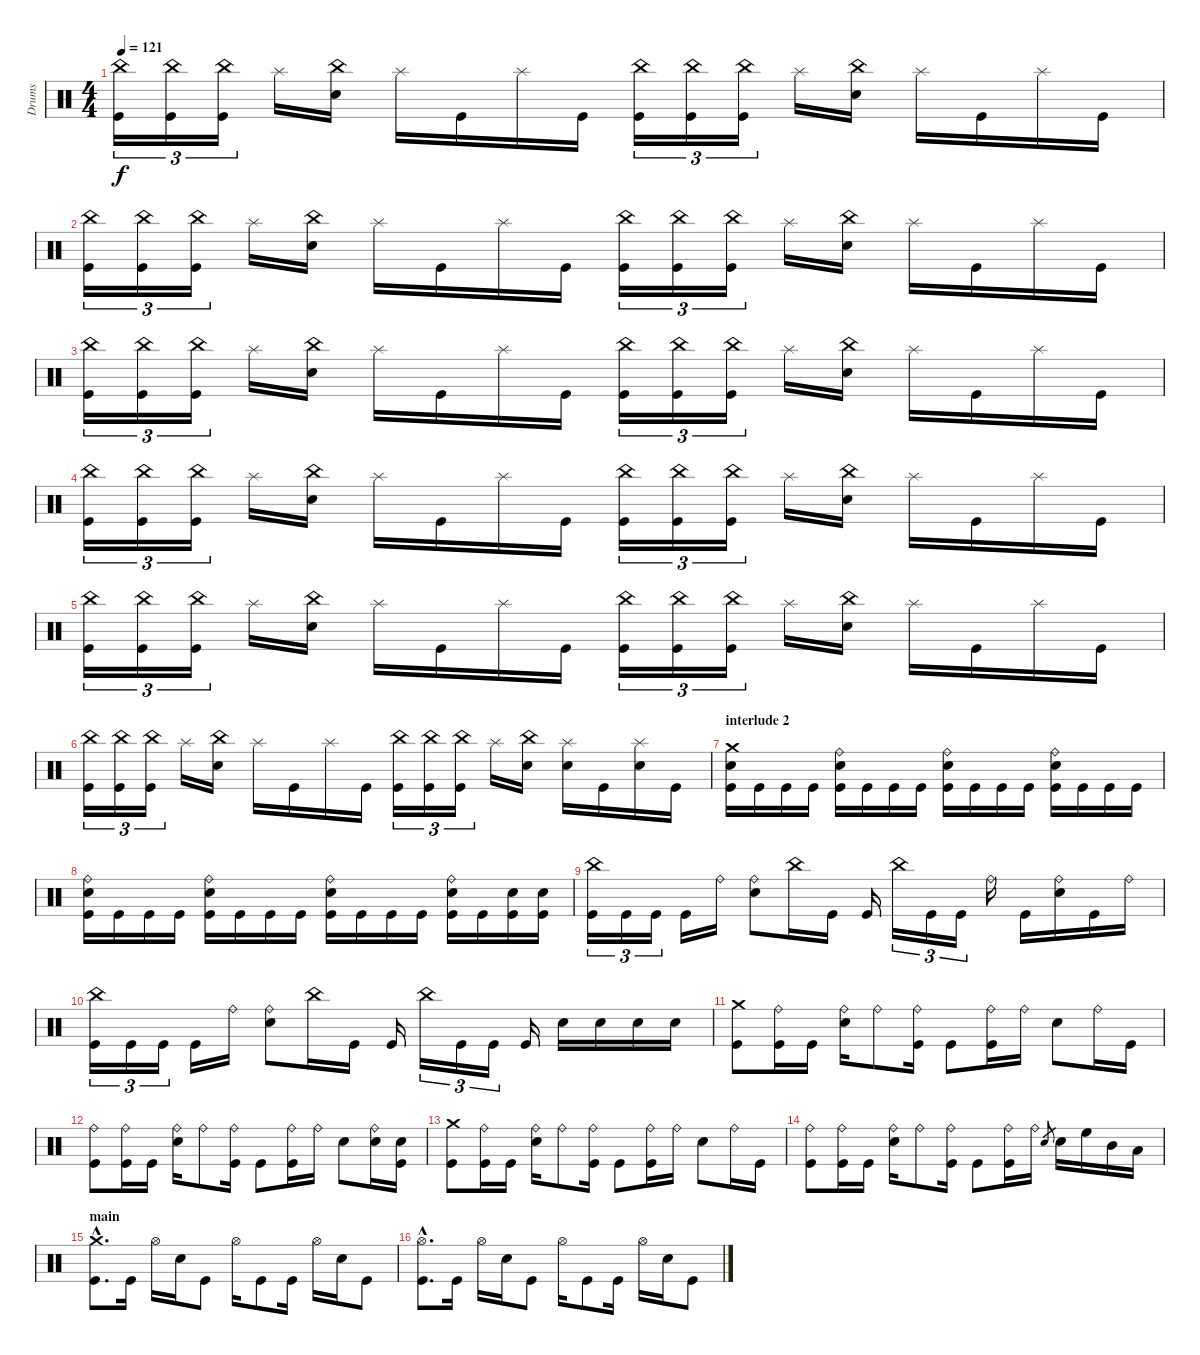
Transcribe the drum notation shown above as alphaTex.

\track ("Drums" "Drums") {instrument percussion}
\staff {score}
\articulation defaults
\ts (4 4)
\tempo 121
\clef neutral
\ks c
("Kick (hit)" "China (hit)").16{tu (3 2) dy f} ("Kick (hit)" "China (hit)").16{tu (3 2)} ("Kick (hit)" "China (hit)").16{tu (3 2)} "Splash (hit)".16 ("Electric Snare (hit)" "China (hit)").16 "Splash (hit)".16 "Kick (hit)".16 "Splash (hit)".16 "Kick (hit)".16 ("Kick (hit)" "China (hit)").16{tu (3 2)} ("Kick (hit)" "China (hit)").16{tu (3 2)} ("Kick (hit)" "China (hit)").16{tu (3 2)} "Splash (hit)".16 ("Electric Snare (hit)" "China (hit)").16 "Splash (hit)".16 "Kick (hit)".16 "Splash (hit)".16 "Kick (hit)".16 |
("Kick (hit)" "China (hit)").16{tu (3 2)} ("Kick (hit)" "China (hit)").16{tu (3 2)} ("Kick (hit)" "China (hit)").16{tu (3 2)} "Splash (hit)".16 ("Electric Snare (hit)" "China (hit)").16 "Splash (hit)".16 "Kick (hit)".16 "Splash (hit)".16 "Kick (hit)".16 ("Kick (hit)" "China (hit)").16{tu (3 2)} ("Kick (hit)" "China (hit)").16{tu (3 2)} ("Kick (hit)" "China (hit)").16{tu (3 2)} "Splash (hit)".16 ("Electric Snare (hit)" "China (hit)").16 "Splash (hit)".16 "Kick (hit)".16 "Splash (hit)".16 "Kick (hit)".16 |
("Kick (hit)" "China (hit)").16{tu (3 2)} ("Kick (hit)" "China (hit)").16{tu (3 2)} ("Kick (hit)" "China (hit)").16{tu (3 2)} "Splash (hit)".16 ("Electric Snare (hit)" "China (hit)").16 "Splash (hit)".16 "Kick (hit)".16 "Splash (hit)".16 "Kick (hit)".16 ("Kick (hit)" "China (hit)").16{tu (3 2)} ("Kick (hit)" "China (hit)").16{tu (3 2)} ("Kick (hit)" "China (hit)").16{tu (3 2)} "Splash (hit)".16 ("Electric Snare (hit)" "China (hit)").16 "Splash (hit)".16 "Kick (hit)".16 "Splash (hit)".16 "Kick (hit)".16 |
("Kick (hit)" "China (hit)").16{tu (3 2)} ("Kick (hit)" "China (hit)").16{tu (3 2)} ("Kick (hit)" "China (hit)").16{tu (3 2)} "Splash (hit)".16 ("Electric Snare (hit)" "China (hit)").16 "Splash (hit)".16 "Kick (hit)".16 "Splash (hit)".16 "Kick (hit)".16 ("Kick (hit)" "China (hit)").16{tu (3 2)} ("Kick (hit)" "China (hit)").16{tu (3 2)} ("Kick (hit)" "China (hit)").16{tu (3 2)} "Splash (hit)".16 ("Electric Snare (hit)" "China (hit)").16 "Splash (hit)".16 "Kick (hit)".16 "Splash (hit)".16 "Kick (hit)".16 |
("Kick (hit)" "China (hit)").16{tu (3 2)} ("Kick (hit)" "China (hit)").16{tu (3 2)} ("Kick (hit)" "China (hit)").16{tu (3 2)} "Splash (hit)".16 ("Electric Snare (hit)" "China (hit)").16 "Splash (hit)".16 "Kick (hit)".16 "Splash (hit)".16 "Kick (hit)".16 ("Kick (hit)" "China (hit)").16{tu (3 2)} ("Kick (hit)" "China (hit)").16{tu (3 2)} ("Kick (hit)" "China (hit)").16{tu (3 2)} "Splash (hit)".16 ("Electric Snare (hit)" "China (hit)").16 "Splash (hit)".16 "Kick (hit)".16 "Splash (hit)".16 "Kick (hit)".16 |
("Kick (hit)" "China (hit)").16{tu (3 2)} ("Kick (hit)" "China (hit)").16{tu (3 2)} ("Kick (hit)" "China (hit)").16{tu (3 2)} "Splash (hit)".16 ("Electric Snare (hit)" "China (hit)").16 "Splash (hit)".16 "Kick (hit)".16 "Splash (hit)".16 "Kick (hit)".16 ("Kick (hit)" "China (hit)").16{tu (3 2)} ("Kick (hit)" "China (hit)").16{tu (3 2)} ("Kick (hit)" "China (hit)").16{tu (3 2)} "Splash (hit)".16 ("Electric Snare (hit)" "China (hit)").16 ("Electric Snare (hit)" "Splash (hit)").16 "Kick (hit)".16 ("Electric Snare (hit)" "Splash (hit)").16 "Kick (hit)".16 |
\section ("" "interlude 2")
("Kick (hit)" "Crash medium (hit)" "Electric Snare (hit)").16 "Kick (hit)".16 "Kick (hit)".16 "Kick (hit)".16 ("Kick (hit)" "Electric Snare (hit)" "Ride (bell)").16 "Kick (hit)".16 "Kick (hit)".16 "Kick (hit)".16 ("Kick (hit)" "Electric Snare (hit)" "Ride (bell)").16 "Kick (hit)".16 "Kick (hit)".16 "Kick (hit)".16 ("Kick (hit)" "Electric Snare (hit)" "Ride (bell)").16 "Kick (hit)".16 "Kick (hit)".16 "Kick (hit)".16 |
("Kick (hit)" "Electric Snare (hit)" "Ride (bell)").16 "Kick (hit)".16 "Kick (hit)".16 "Kick (hit)".16 ("Kick (hit)" "Electric Snare (hit)" "Ride (bell)").16 "Kick (hit)".16 "Kick (hit)".16 "Kick (hit)".16 ("Kick (hit)" "Electric Snare (hit)" "Ride (bell)").16 "Kick (hit)".16 "Kick (hit)".16 "Kick (hit)".16 ("Kick (hit)" "Electric Snare (hit)" "Ride (bell)").16 "Kick (hit)".16 ("Kick (hit)" "Electric Snare (hit)").16 ("Kick (hit)" "Electric Snare (hit)").16 |
("Kick (hit)" "China (hit)").16{tu (3 2)} "Kick (hit)".16{tu (3 2)} "Kick (hit)".16{tu (3 2)} "Kick (hit)".16 "Ride (bell)".16 ("Electric Snare (hit)" "Ride (bell)").8 "China (hit)".16 "Kick (hit)".16 "Kick (hit)".16 "China (hit)".16{tu (3 2)} "Kick (hit)".16{tu (3 2)} "Kick (hit)".16{tu (3 2)} "Ride (bell)".16 "Kick (hit)".16 ("Electric Snare (hit)" "Ride (bell)").16 "Kick (hit)".16 "Ride (bell)".16 |
("Kick (hit)" "China (hit)").16{tu (3 2)} "Kick (hit)".16{tu (3 2)} "Kick (hit)".16{tu (3 2)} "Kick (hit)".16 "Ride (bell)".16 ("Electric Snare (hit)" "Ride (bell)").8 "China (hit)".16 "Kick (hit)".16 "Kick (hit)".16 "China (hit)".16{tu (3 2)} "Kick (hit)".16{tu (3 2)} "Kick (hit)".16{tu (3 2)} "Kick (hit)".16 "Electric Snare (hit)".16 "Electric Snare (hit)".16 "Electric Snare (hit)".16 "Electric Snare (hit)".16 |
("Kick (hit)" "Crash medium (hit)").8 ("Kick (hit)" "Ride (bell)").16 "Kick (hit)".16 ("Electric Snare (hit)" "Ride (bell)").16 "Ride (bell)".8 ("Kick (hit)" "Ride (bell)").16 "Kick (hit)".8 ("Kick (hit)" "Ride (bell)").16 "Ride (bell)".16 "Electric Snare (hit)".8 "Ride (bell)".16 "Kick (hit)".16 |
("Kick (hit)" "Ride (bell)").8 ("Kick (hit)" "Ride (bell)").16 "Kick (hit)".16 ("Electric Snare (hit)" "Ride (bell)").16 "Ride (bell)".8 ("Kick (hit)" "Ride (bell)").16 "Kick (hit)".8 ("Kick (hit)" "Ride (bell)").16 "Ride (bell)".16 "Electric Snare (hit)".8 ("Electric Snare (hit)" "Ride (bell)").16 ("Kick (hit)" "Electric Snare (hit)").16 |
("Kick (hit)" "Crash medium (hit)").8 ("Kick (hit)" "Ride (bell)").16 "Kick (hit)".16 ("Electric Snare (hit)" "Ride (bell)").16 "Ride (bell)".8 ("Kick (hit)" "Ride (bell)").16 "Kick (hit)".8 ("Kick (hit)" "Ride (bell)").16 "Ride (bell)".16 "Electric Snare (hit)".8 "Ride (bell)".16 "Kick (hit)".16 |
("Kick (hit)" "Ride (bell)").8 ("Kick (hit)" "Ride (bell)").16 "Kick (hit)".16 ("Electric Snare (hit)" "Ride (bell)").16 "Ride (bell)".8 ("Kick (hit)" "Ride (bell)").16 "Kick (hit)".8 ("Kick (hit)" "Ride (bell)").16 "Ride (bell)".16 "Electric Snare (hit)".8{gr} "Electric Snare (hit)".16 "High Floor Tom (hit)".16 "Mid Tom (hit)".16 "Low Tom (hit)".16 |
\section ("" "main")
("Kick (hit)"{hac} "Crash medium (hit)"{hac}).8{d} "Kick (hit)".16 "Hi-Hat (open)".16 "Electric Snare (hit)".16 "Kick (hit)".8 "Hi-Hat (open)".16 "Kick (hit)".8 "Kick (hit)".16 "Hi-Hat (open)".16 "Electric Snare (hit)".16 "Kick (hit)".8 |
("Kick (hit)"{hac} "Hi-Hat (open)"{hac}).8{d} "Kick (hit)".16 "Hi-Hat (open)".16 "Electric Snare (hit)".16 "Kick (hit)".8 "Hi-Hat (open)".16 "Kick (hit)".8 "Kick (hit)".16 "Hi-Hat (open)".16 "Electric Snare (hit)".16 "Kick (hit)".8
